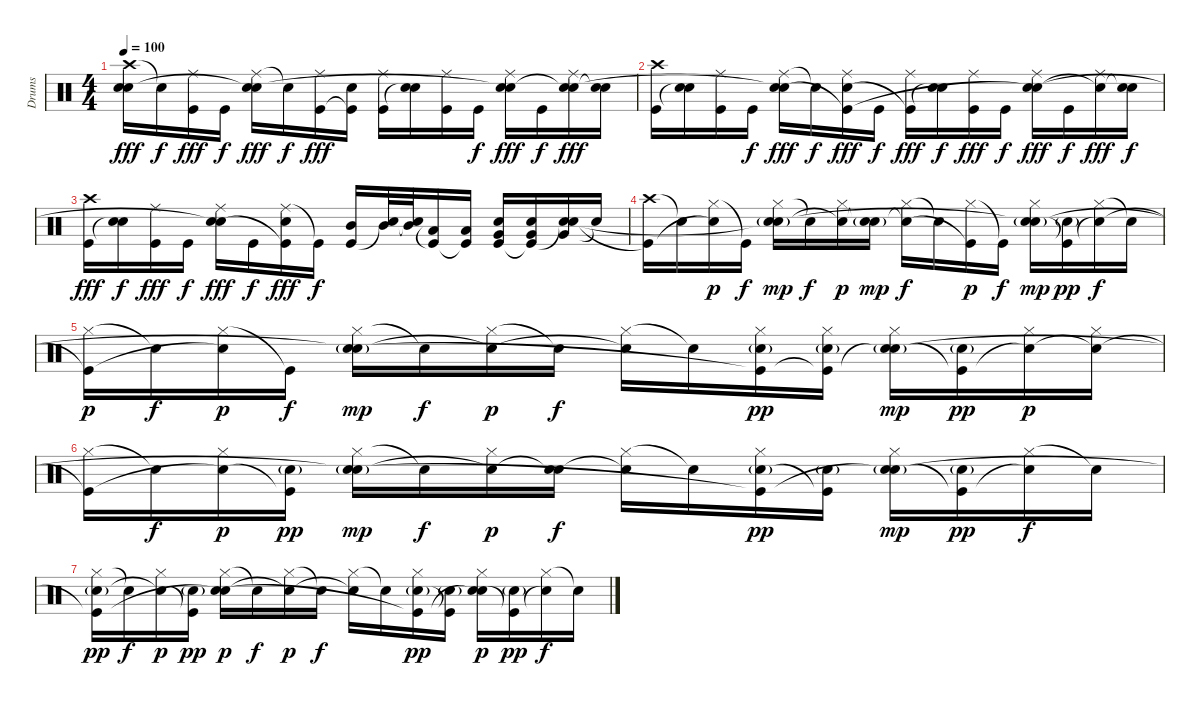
\track ("Drums" "Drums") {instrument percussion}
\staff {score}
\articulation defaults
\ts (4 4)
\tempo 100
\clef neutral
\ks c
("Crash high (hit)" "Electric Snare (hit)" "Snare (hit)"{t}).16{dy fff} "Snare (hit)"{t}.16{dy f} ("Ride (middle)" "Kick (hit)").16{dy fff} "Kick (hit)".16{dy f} ("Ride (middle)" "Electric Snare (hit)" "Snare (hit)"{t}).16{dy fff} "Snare (hit)"{t}.16{dy f} ("Ride (middle)" "Kick (hit)").16{dy fff} ("Electric Snare (hit)" "Kick (hit)"{t}).16 ("Ride (middle)" "Kick (hit)").16 ("Electric Snare (hit)" "Snare (hit)"{t}).16 ("Ride (middle)" "Kick (hit)").16 "Kick (hit)".16{dy f} ("Ride (middle)" "Electric Snare (hit)" "Snare (hit)"{t}).16{dy fff} "Kick (hit)".16{dy f} ("Ride (middle)" "Electric Snare (hit)" "Snare (hit)"{t}).16{dy fff} ("Electric Snare (hit)" "Snare (hit)"{t}).16 |
("Crash high (hit)" "Kick (hit)").16 ("Electric Snare (hit)" "Snare (hit)"{t}).16 ("Ride (middle)" "Kick (hit)").16 "Kick (hit)".16{dy f} ("Ride (middle)" "Electric Snare (hit)" "Snare (hit)"{t}).16{dy fff} "Snare (hit)"{t}.16{dy f} ("Ride (middle)" "Electric Snare (hit)" "Kick (hit)"{t}).16{dy fff} "Kick (hit)".16{dy f} ("Ride (middle)" "Kick (hit)"{t}).16{dy fff} ("Electric Snare (hit)" "Snare (hit)"{t}).16{dy f} ("Ride (middle)" "Kick (hit)").16{dy fff} "Kick (hit)".16{dy f} ("Ride (middle)" "Electric Snare (hit)" "Snare (hit)"{t}).16{dy fff} "Kick (hit)".16{dy f} ("Ride (middle)" "Snare (hit)"{t}).16{dy fff} ("Electric Snare (hit)" "Snare (hit)"{t}).16{dy f} |
("Crash high (hit)" "Kick (hit)").16{dy fff} ("Electric Snare (hit)" "Snare (hit)"{t}).16{dy f} ("Ride (middle)" "Kick (hit)").16{dy fff} "Kick (hit)".16{dy f} ("Ride (middle)" "Electric Snare (hit)" "Snare (hit)"{t}).16{dy fff} "Kick (hit)".16{dy f} ("Ride (middle)" "Electric Snare (hit)" "Kick (hit)"{t}).16{dy fff} "Kick (hit)"{t}.16{dy f} ("Mid Tom (hit)" "Kick (hit)").16 ("Mid Tom (hit)" "Snare (hit)"{t}).32 ("Mid Tom (hit)" "Snare (hit)"{t}).32 ("Low Tom (hit)" "Kick (hit)"{t}).16 ("Low Tom (hit)" "Kick (hit)"{t}).16 ("Very Low Tom (hit)" "Electric Snare (hit)" "Kick (hit)").16 ("Very Low Tom (hit)" "Electric Snare (hit)" "Kick (hit)"{t}).16 ("Very Low Tom (hit)" "Electric Snare (hit)" "Snare (hit)"{t}).16 "Snare (hit)"{t}.16 |
("Crash high (hit)" "Kick (hit)"{t}).16 "Snare (hit)"{t}.16 ("Hi-Hat (closed)" "Snare (hit)"{t}).16{dy p} "Kick (hit)"{t}.16{dy f} ("Hi-Hat (closed)" "Snare (hit) 2"{g} "Snare (hit)"{t}).16{dy mp} "Snare (hit)"{t}.16{dy f} ("Hi-Hat (closed)" "Snare (hit)"{t}).16{dy p} ("Snare (hit) 2"{g} "Snare (hit)"{t}).16{dy mp} ("Hi-Hat (closed)" "Snare (hit)"{t}).16{dy f} "Snare (hit)"{t}.16 ("Hi-Hat (closed)" "Kick (hit)"{t}).16{dy p} "Kick (hit)"{t}.16{dy f} ("Hi-Hat (closed)" "Snare (hit) 2"{g} "Snare (hit)"{t}).16{dy mp} ("Snare (hit) 2"{g} "Kick (hit)"{t}).16{dy pp} ("Hi-Hat (closed)" "Snare (hit)"{t}).16{dy f} "Snare (hit)"{t}.16 |
("Hi-Hat (closed)" "Kick (hit)"{t}).16{dy p} "Snare (hit)"{t}.16{dy f} ("Hi-Hat (closed)" "Snare (hit)"{t}).16{dy p} "Kick (hit)"{t}.16{dy f} ("Hi-Hat (closed)" "Snare (hit) 2"{g} "Snare (hit)"{t}).16{dy mp} "Snare (hit)"{t}.16{dy f} ("Hi-Hat (closed)" "Snare (hit)"{t}).16{dy p} "Snare (hit)"{t}.16{dy f} ("Hi-Hat (closed)" "Snare (hit)"{t}).16 "Snare (hit)"{t}.16 ("Hi-Hat (closed)" "Snare (hit) 2"{g} "Kick (hit)"{t}).16{dy pp} ("Hi-Hat (closed)" "Snare (hit) 2"{g} "Kick (hit)"{t}).16 ("Hi-Hat (closed)" "Snare (hit) 2"{g} "Snare (hit)"{t}).16{dy mp} ("Snare (hit) 2"{g} "Kick (hit)"{t}).16{dy pp} ("Hi-Hat (closed)" "Snare (hit)"{t}).16{dy p} ("Hi-Hat (closed)" "Snare (hit)"{t}).16 |
("Hi-Hat (closed)" "Kick (hit)"{t}).16 "Snare (hit)"{t}.16{dy f} ("Hi-Hat (closed)" "Snare (hit)"{t}).16{dy p} ("Snare (hit) 2"{g} "Kick (hit)"{t}).16{dy pp} ("Hi-Hat (closed)" "Snare (hit) 2"{g} "Snare (hit)"{t}).16{dy mp} "Snare (hit)"{t}.16{dy f} ("Hi-Hat (closed)" "Snare (hit)"{t}).16{dy p} ("Snare (hit) 2" "Snare (hit)"{t}).16{dy f} ("Hi-Hat (closed)" "Snare (hit)"{t}).16 "Snare (hit)"{t}.16 ("Hi-Hat (closed)" "Snare (hit) 2"{g} "Kick (hit)"{t}).16{dy pp} ("Snare (hit) 2"{g} "Kick (hit)"{t}).16 ("Hi-Hat (closed)" "Snare (hit) 2"{g} "Snare (hit)"{t}).16{dy mp} ("Snare (hit) 2"{g} "Kick (hit)"{t}).16{dy pp} ("Hi-Hat (closed)" "Snare (hit)"{t}).16{dy f} "Snare (hit)"{t}.16 |
("Hi-Hat (closed)" "Snare (hit) 2"{g} "Kick (hit)"{t}).16{dy pp} "Snare (hit)"{t}.16{dy f} ("Hi-Hat (closed)" "Snare (hit)"{t}).16{dy p} ("Snare (hit) 2"{g} "Kick (hit)"{t}).16{dy pp} ("Hi-Hat (closed)" "Snare (hit) 2" "Snare (hit)"{t}).16{dy p} "Snare (hit)"{t}.16{dy f} ("Hi-Hat (closed)" "Snare (hit)"{t}).16{dy p} "Snare (hit)"{t}.16{dy f} ("Hi-Hat (closed)" "Snare (hit)"{t}).16 "Snare (hit)"{t}.16 ("Hi-Hat (closed)" "Snare (hit) 2"{g} "Kick (hit)"{t}).16{dy pp} ("Snare (hit) 2"{g} "Kick (hit)"{t}).16 ("Hi-Hat (closed)" "Snare (hit) 2" "Snare (hit)"{t}).16{dy p} ("Snare (hit) 2"{g} "Kick (hit)"{t}).16{dy pp} ("Hi-Hat (closed)" "Snare (hit)"{t}).16{dy f} "Snare (hit)"{t}.16
